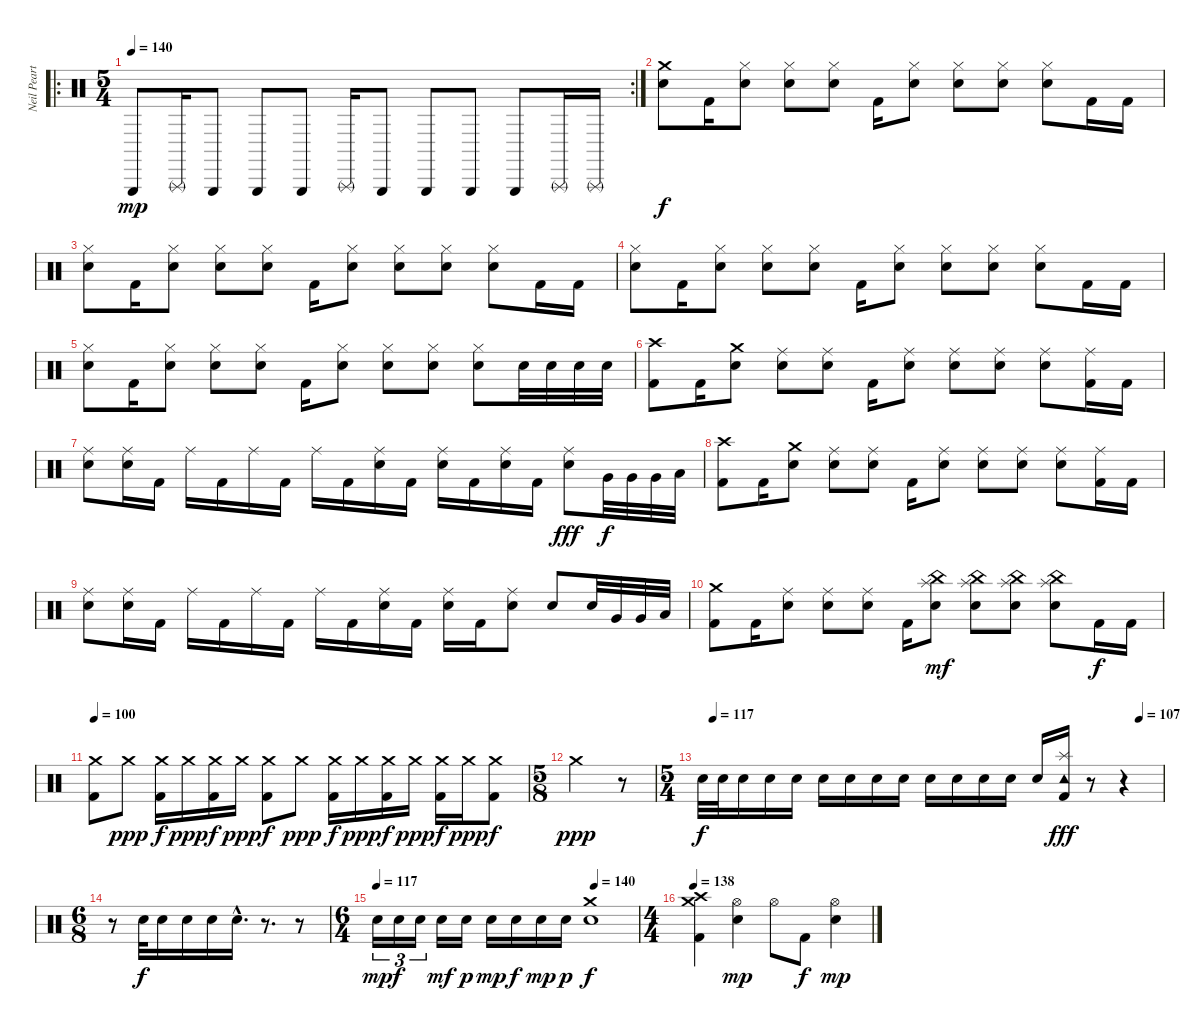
\track ("Neil Peart, Percusión" "Neil Peart") {instrument percussion}
\staff {score}
\articulation defaults
\ro
\rc 2
\ts (5 4)
\tempo 140
\tempo 107
\tempo 140
\clef neutral
\ks c "Triangle (hit)".8{dy mp} "Triangle (rnute)".16 "Triangle (hit)".8 "Triangle (hit)".8 "Triangle (hit)".8 "Triangle (rnute)".16 "Triangle (hit)".8 "Triangle (hit)".8 "Triangle (hit)".8 "Triangle (hit)".8 "Triangle (rnute)".16 "Triangle (rnute)".16
|
("Crash medium (hit)" "Electric Snare (hit)").8{dy f} "Kick (hit) 2".16 ("Hi-Hat (closed)" "Electric Snare (hit)").8 ("Hi-Hat (closed)" "Electric Snare (hit)").8 ("Hi-Hat (closed)" "Electric Snare (hit)").8 "Kick (hit) 2".16 ("Hi-Hat (closed)" "Electric Snare (hit)").8 ("Hi-Hat (closed)" "Electric Snare (hit)").8 ("Hi-Hat (closed)" "Electric Snare (hit)").8 ("Hi-Hat (closed)" "Electric Snare (hit)").8 "Kick (hit) 2".16 "Kick (hit) 2".16 |
("Hi-Hat (closed)" "Electric Snare (hit)").8 "Kick (hit) 2".16 ("Hi-Hat (closed)" "Electric Snare (hit)").8 ("Hi-Hat (closed)" "Electric Snare (hit)").8 ("Hi-Hat (closed)" "Electric Snare (hit)").8 "Kick (hit) 2".16 ("Hi-Hat (closed)" "Electric Snare (hit)").8 ("Hi-Hat (closed)" "Electric Snare (hit)").8 ("Hi-Hat (closed)" "Electric Snare (hit)").8 ("Hi-Hat (closed)" "Electric Snare (hit)").8 "Kick (hit) 2".16 "Kick (hit) 2".16 |
("Hi-Hat (closed)" "Electric Snare (hit)").8 "Kick (hit) 2".16 ("Hi-Hat (closed)" "Electric Snare (hit)").8 ("Hi-Hat (closed)" "Electric Snare (hit)").8 ("Hi-Hat (closed)" "Electric Snare (hit)").8 "Kick (hit) 2".16 ("Hi-Hat (closed)" "Electric Snare (hit)").8 ("Hi-Hat (closed)" "Electric Snare (hit)").8 ("Hi-Hat (closed)" "Electric Snare (hit)").8 ("Hi-Hat (closed)" "Electric Snare (hit)").8 "Kick (hit) 2".16 "Kick (hit) 2".16 |
("Hi-Hat (closed)" "Electric Snare (hit)").8 "Kick (hit) 2".16 ("Hi-Hat (closed)" "Electric Snare (hit)").8 ("Hi-Hat (closed)" "Electric Snare (hit)").8 ("Hi-Hat (closed)" "Electric Snare (hit)").8 "Kick (hit) 2".16 ("Hi-Hat (closed)" "Electric Snare (hit)").8 ("Hi-Hat (closed)" "Electric Snare (hit)").8 ("Hi-Hat (closed)" "Electric Snare (hit)").8 ("Hi-Hat (closed)" "Electric Snare (hit)").8 "Electric Snare (hit)".32 "Electric Snare (hit)".32 "Electric Snare (hit)".32 "Electric Snare (hit)".32 |
("Crash high (hit)" "Kick (hit) 2").8 "Kick (hit) 2".16 ("Crash medium (hit)" "Electric Snare (hit)").8 ("Ride (middle)" "Electric Snare (hit)").8 ("Ride (middle)" "Electric Snare (hit)").8 "Kick (hit) 2".16 ("Ride (middle)" "Electric Snare (hit)").8 ("Ride (middle)" "Electric Snare (hit)").8 ("Ride (middle)" "Electric Snare (hit)").8 ("Ride (middle)" "Electric Snare (hit)").8 ("Ride (middle)" "Kick (hit) 2").16 "Kick (hit) 2".16 |
("Ride (middle)" "Electric Snare (hit)").8 ("Ride (middle)" "Electric Snare (hit)").16 "Kick (hit) 2".16 "Ride (middle)".16 "Kick (hit) 2".16 "Ride (middle)".16 "Kick (hit) 2".16 "Ride (middle)".16 "Kick (hit) 2".16 ("Ride (middle)" "Electric Snare (hit)").16 "Kick (hit) 2".16 ("Ride (middle)" "Electric Snare (hit)").16 "Kick (hit) 2".16 ("Ride (middle)" "Electric Snare (hit)").16 "Kick (hit) 2".16 ("Ride (middle)" "Electric Snare (hit)").8{dy fff} "Very Low Tom (hit)".32{dy f} "Very Low Tom (hit)".32 "Very Low Tom (hit)".32 "Low Floor Tom (hit)".32 |
("Crash high (hit)" "Kick (hit) 2").8 "Kick (hit) 2".16 ("Crash medium (hit)" "Electric Snare (hit)").8 ("Ride (middle)" "Electric Snare (hit)").8 ("Ride (middle)" "Electric Snare (hit)").8 "Kick (hit) 2".16 ("Ride (middle)" "Electric Snare (hit)").8 ("Ride (middle)" "Electric Snare (hit)").8 ("Ride (middle)" "Electric Snare (hit)").8 ("Ride (middle)" "Electric Snare (hit)").8 ("Ride (middle)" "Kick (hit) 2").16 "Kick (hit) 2".16 |
("Ride (middle)" "Electric Snare (hit)").8 ("Ride (middle)" "Electric Snare (hit)").16 "Kick (hit) 2".16 "Ride (middle)".16 "Kick (hit) 2".16 "Ride (middle)".16 "Kick (hit) 2".16 "Ride (middle)".16 "Kick (hit) 2".16 ("Ride (middle)" "Electric Snare (hit)").16 "Kick (hit) 2".16 ("Ride (middle)" "Electric Snare (hit)").16 "Kick (hit) 2".16 ("Ride (middle)" "Electric Snare (hit)").8 "Electric Snare (hit)".8 "Electric Snare (hit)".32 "Very Low Tom (hit)".32 "Very Low Tom (hit)".32 "Low Floor Tom (hit)".32 |
("Crash medium (hit)" "Kick (hit) 2").8 "Kick (hit) 2".16 ("Ride (middle)" "Electric Snare (hit)").8 ("Ride (middle)" "Electric Snare (hit)").8 ("Ride (middle)" "Electric Snare (hit)").8 "Kick (hit) 2".16 ("China (hit)" "Electric Snare (hit)" "Splash (hit)").8{dy mf} ("China (hit)" "Electric Snare (hit)" "Splash (hit)").8 ("China (hit)" "Electric Snare (hit)" "Splash (hit)").8 ("China (hit)" "Electric Snare (hit)" "Splash (hit)").8 "Kick (hit) 2".16{dy f} "Kick (hit) 2".16 |
\tempo 100
("Crash medium (hit)" "Kick (hit) 2").8 "Crash medium (hit)".8{dy ppp} ("Crash medium (hit)" "Kick (hit) 2").16{dy f} "Crash medium (hit)".16{dy ppp} ("Crash medium (hit)" "Kick (hit) 2").16{dy f} "Crash medium (hit)".16{dy ppp} ("Crash medium (hit)" "Kick (hit) 2").8{dy f} "Crash medium (hit)".8{dy ppp} ("Crash medium (hit)" "Kick (hit) 2").16{dy f} "Crash medium (hit)".16{dy ppp} ("Crash medium (hit)" "Kick (hit) 2").16{dy f} "Crash medium (hit)".16{dy ppp} ("Crash medium (hit)" "Kick (hit) 2").16{dy f} "Crash medium (hit)".16{dy ppp} ("Crash medium (hit)" "Kick (hit) 2").8{dy f} |
\ts (5 8)
"Crash medium (hit)".2{dy ppp} r.8 |
\ts (5 4)
\tempo (117 0.025)
\tempo (107 0.95)
"Electric Snare (hit)".32{dy f} "Electric Snare (hit)".32 "Electric Snare (hit)".16 "Electric Snare (hit)".16 "Electric Snare (hit)".16 "Electric Snare (hit)".16 "Electric Snare (hit)".16 "Electric Snare (hit)".16 "Electric Snare (hit)".16 "Electric Snare (hit)".16 "Electric Snare (hit)".16 "Electric Snare (hit)".16 "Electric Snare (hit)".16 "Electric Snare (hit)".16 ("Splash (hit)" "Tambourine (hit)" "Kick (hit) 2").16{dy fff} r.8 r.4 |
\ts (6 8)
r.8 "Electric Snare (hit)".32{dy f} "Electric Snare (hit)".16 "Electric Snare (hit)".16 "Electric Snare (hit)".16 "Electric Snare (hit)"{hac}.16{d} r.8{d} r.8 |
\ts (6 4)
\tempo 117
\tempo (140 0.8333333333333334)
"Electric Snare (hit)".16{tu (3 2) dy mp} "Electric Snare (hit)".16{tu (3 2) dy f} "Electric Snare (hit)".16{tu (3 2)} "Electric Snare (hit)".16{dy mf} "Electric Snare (hit)".16{dy p} "Electric Snare (hit)".16{dy mp} "Electric Snare (hit)".16{dy f} "Electric Snare (hit)".16{dy mp} "Electric Snare (hit)".16{dy p} ("Crash medium (hit)" "Electric Snare (hit)").1{dy f} |
\ts (4 4)
\tempo 138
("Crash medium (hit)" "Crash high (hit)" "Kick (hit) 2").4 ("Hi-Hat (open)" "Electric Snare (hit)").4{dy mp} "Hi-Hat (open)".8 "Kick (hit) 2".8{dy f} ("Hi-Hat (open)" "Electric Snare (hit)").4{dy mp}
